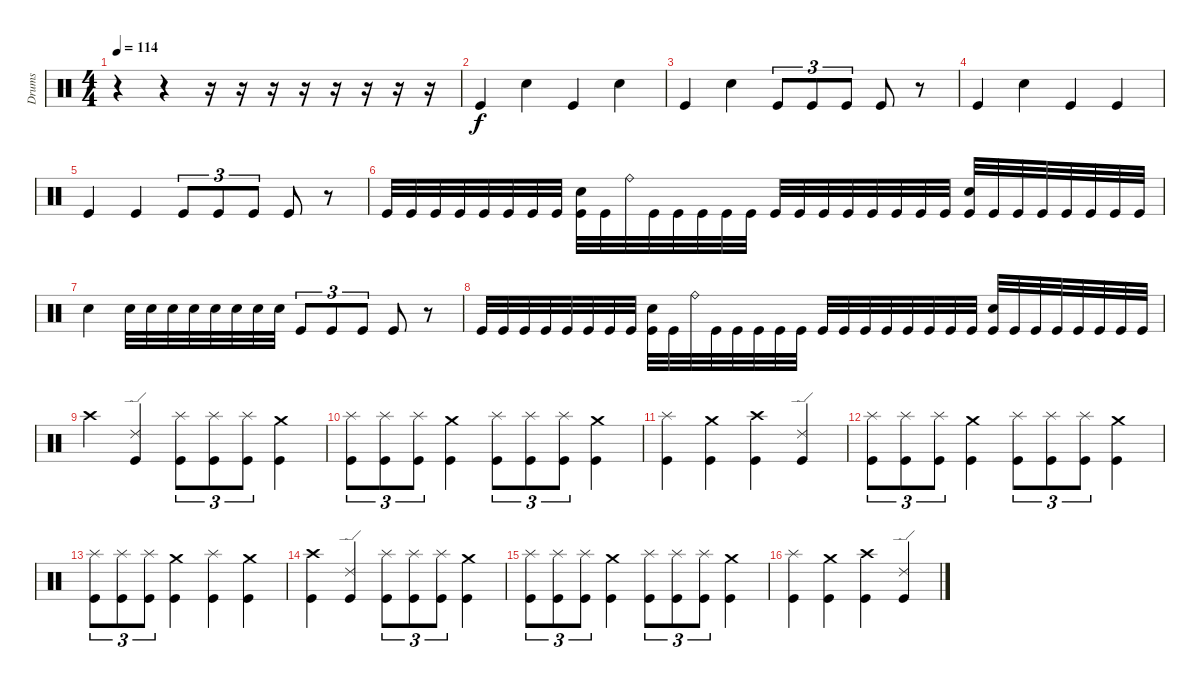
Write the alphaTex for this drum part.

\track ("Drums" "Drums") {instrument percussion}
\staff {score}
\articulation defaults
\ts (4 4)
\tempo 114
\clef neutral
\ks c
r.4{dy f} r.4 r.16 r.16 r.16 r.16 r.16 r.16 r.16 r.16 |
"Kick (hit)".4 "Snare (hit) 2".4 "Kick (hit)".4 "Snare (hit) 2".4 |
"Kick (hit)".4 "Snare (hit) 2".4 "Kick (hit)".8{tu (3 2)} "Kick (hit)".8{tu (3 2)} "Kick (hit)".8{tu (3 2)} "Kick (hit)".8 r.8 |
"Kick (hit)".4 "Snare (hit) 2".4 "Kick (hit)".4 "Kick (hit)".4 |
"Kick (hit)".4 "Kick (hit)".4 "Kick (hit)".8{tu (3 2)} "Kick (hit)".8{tu (3 2)} "Kick (hit)".8{tu (3 2)} "Kick (hit)".8 r.8 |
"Kick (hit)".32 "Kick (hit)".32 "Kick (hit)".32 "Kick (hit)".32 "Kick (hit)".32 "Kick (hit)".32 "Kick (hit)".32 "Kick (hit)".32 ("Snare (hit) 2" "Kick (hit)").32 "Kick (hit)".32 "Ride (bell)".32 "Kick (hit)".32 "Kick (hit)".32 "Kick (hit)".32 "Kick (hit)".32 "Kick (hit)".32 "Kick (hit)".32 "Kick (hit)".32 "Kick (hit)".32 "Kick (hit)".32 "Kick (hit)".32 "Kick (hit)".32 "Kick (hit)".32 "Kick (hit)".32 ("Snare (hit) 2" "Kick (hit)").32 "Kick (hit)".32 "Kick (hit)".32 "Kick (hit)".32 "Kick (hit)".32 "Kick (hit)".32 "Kick (hit)".32 "Kick (hit)".32 |
"Snare (hit)".4 "Snare (hit) 2".32 "Snare (hit) 2".32 "Snare (hit) 2".32 "Snare (hit) 2".32 "Snare (hit) 2".32 "Snare (hit) 2".32 "Snare (hit) 2".32 "Snare (hit) 2".32 "Kick (hit)".8{tu (3 2)} "Kick (hit)".8{tu (3 2)} "Kick (hit)".8{tu (3 2)} "Kick (hit)".8 r.8 |
"Kick (hit)".32 "Kick (hit)".32 "Kick (hit)".32 "Kick (hit)".32 "Kick (hit)".32 "Kick (hit)".32 "Kick (hit)".32 "Kick (hit)".32 ("Snare (hit) 2" "Kick (hit)").32 "Kick (hit)".32 "Ride (bell)".32 "Kick (hit)".32 "Kick (hit)".32 "Kick (hit)".32 "Kick (hit)".32 "Kick (hit)".32 "Kick (hit)".32 "Kick (hit)".32 "Kick (hit)".32 "Kick (hit)".32 "Kick (hit)".32 "Kick (hit)".32 "Kick (hit)".32 "Kick (hit)".32 ("Snare (hit) 2" "Kick (hit)").32 "Kick (hit)".32 "Kick (hit)".32 "Kick (hit)".32 "Kick (hit)".32 "Kick (hit)".32 "Kick (hit)".32 "Kick (hit)".32 |
"Crash high (hit)".4 ("Ride (edge) 2" "Kick (hit)").4 ("Splash (hit)" "Kick (hit)").8{tu (3 2)} ("Splash (hit)" "Kick (hit)").8{tu (3 2)} ("Splash (hit)" "Kick (hit)").8{tu (3 2)} ("Crash medium (hit)" "Kick (hit)").4 |
("Splash (hit)" "Kick (hit)").8{tu (3 2)} ("Splash (hit)" "Kick (hit)").8{tu (3 2)} ("Splash (hit)" "Kick (hit)").8{tu (3 2)} ("Crash medium (hit)" "Kick (hit)").4 ("Splash (hit)" "Kick (hit)").8{tu (3 2)} ("Splash (hit)" "Kick (hit)").8{tu (3 2)} ("Splash (hit)" "Kick (hit)").8{tu (3 2)} ("Crash medium (hit)" "Kick (hit)").4 |
("Splash (hit)" "Kick (hit)").4 ("Crash medium (hit)" "Kick (hit)").4 ("Crash high (hit)" "Kick (hit)").4 ("Ride (edge) 2" "Kick (hit)").4 |
("Splash (hit)" "Kick (hit)").8{tu (3 2)} ("Splash (hit)" "Kick (hit)").8{tu (3 2)} ("Splash (hit)" "Kick (hit)").8{tu (3 2)} ("Crash medium (hit)" "Kick (hit)").4 ("Splash (hit)" "Kick (hit)").8{tu (3 2)} ("Splash (hit)" "Kick (hit)").8{tu (3 2)} ("Splash (hit)" "Kick (hit)").8{tu (3 2)} ("Crash medium (hit)" "Kick (hit)").4 |
("Splash (hit)" "Kick (hit)").8{tu (3 2)} ("Splash (hit)" "Kick (hit)").8{tu (3 2)} ("Splash (hit)" "Kick (hit)").8{tu (3 2)} ("Crash medium (hit)" "Kick (hit)").4 ("Splash (hit)" "Kick (hit)").4 ("Crash medium (hit)" "Kick (hit)").4 |
("Crash high (hit)" "Kick (hit)").4 ("Ride (edge) 2" "Kick (hit)").4 ("Splash (hit)" "Kick (hit)").8{tu (3 2)} ("Splash (hit)" "Kick (hit)").8{tu (3 2)} ("Splash (hit)" "Kick (hit)").8{tu (3 2)} ("Crash medium (hit)" "Kick (hit)").4 |
("Splash (hit)" "Kick (hit)").8{tu (3 2)} ("Splash (hit)" "Kick (hit)").8{tu (3 2)} ("Splash (hit)" "Kick (hit)").8{tu (3 2)} ("Crash medium (hit)" "Kick (hit)").4 ("Splash (hit)" "Kick (hit)").8{tu (3 2)} ("Splash (hit)" "Kick (hit)").8{tu (3 2)} ("Splash (hit)" "Kick (hit)").8{tu (3 2)} ("Crash medium (hit)" "Kick (hit)").4 |
("Splash (hit)" "Kick (hit)").4 ("Crash medium (hit)" "Kick (hit)").4 ("Crash high (hit)" "Kick (hit)").4 ("Ride (edge) 2" "Kick (hit)").4
